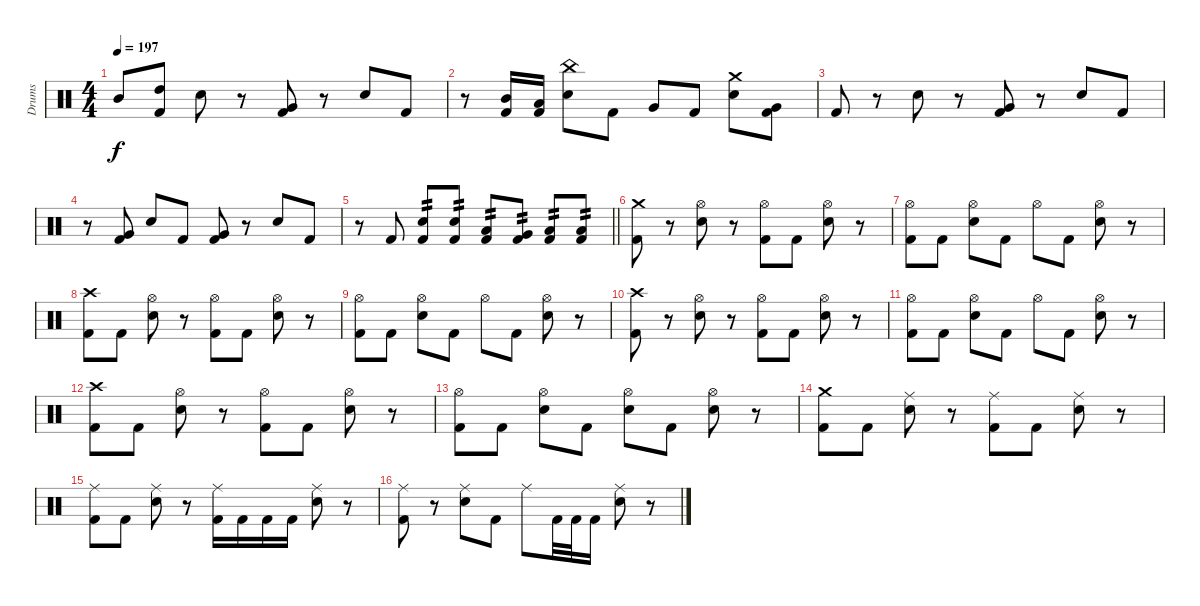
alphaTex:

\track ("Drums" "Drums") {instrument percussion}
\staff {score}
\articulation defaults
\ts (4 4)
\tempo 197
\clef neutral
\ks c "Mid Tom (hit)".8{dy f}
("High Tom (hit)" "Kick (hit) 2").8 "Electric Snare (hit)".8 r.8 ("Very Low Tom (hit)" "Kick (hit) 2").8 r.8 "Electric Snare (hit)".8 "Kick (hit) 2".8 |
r.8 ("Mid Tom (hit)" "Kick (hit) 2").16 ("Low Tom (hit)" "Kick (hit) 2").16 ("China (hit)" "Electric Snare (hit)").8 "Kick (hit) 2".8 "Very Low Tom (hit)".8 "Kick (hit) 2".8 ("Crash medium (hit)" "Electric Snare (hit)").8 ("Very Low Tom (hit)" "Kick (hit) 2").8 |
"Kick (hit) 2".8 r.8 "Electric Snare (hit)".8 r.8 ("Very Low Tom (hit)" "Kick (hit) 2").8 r.8 "Electric Snare (hit)".8 "Kick (hit) 2".8 |
r.8 ("Very Low Tom (hit)" "Kick (hit) 2").8 "Electric Snare (hit)".8 "Kick (hit) 2".8 ("Very Low Tom (hit)" "Kick (hit) 2").8 r.8 "Electric Snare (hit)".8 "Kick (hit) 2".8 |
\barLineRight lightlight
r.8 "Kick (hit) 2".8 ("Electric Snare (hit)" "Kick (hit) 2").8{tp 2} ("Electric Snare (hit)" "Kick (hit) 2").8{tp 2} ("Low Tom (hit)" "Kick (hit) 2").8{tp 2} ("Very Low Tom (hit)" "Kick (hit) 2").8{tp 2} ("Low Floor Tom (hit)" "Kick (hit) 2").8{tp 2} ("Low Floor Tom (hit)" "Kick (hit) 2").8{tp 2} |
("Crash medium (hit)" "Kick (hit) 2").8 r.8 ("Hi-Hat (open)" "Electric Snare (hit)").8 r.8 ("Hi-Hat (open)" "Kick (hit) 2").8 "Kick (hit) 2".8 ("Hi-Hat (open)" "Electric Snare (hit)").8 r.8 |
("Hi-Hat (open)" "Kick (hit) 2").8 "Kick (hit) 2".8 ("Hi-Hat (open)" "Electric Snare (hit)").8 "Kick (hit) 2".8 "Hi-Hat (open)".8 "Kick (hit) 2".8 ("Hi-Hat (open)" "Electric Snare (hit)").8 r.8 |
("Crash high (hit)" "Kick (hit) 2").8 "Kick (hit) 2".8 ("Hi-Hat (open)" "Electric Snare (hit)").8 r.8 ("Hi-Hat (open)" "Kick (hit) 2").8 "Kick (hit) 2".8 ("Hi-Hat (open)" "Electric Snare (hit)").8 r.8 |
("Hi-Hat (open)" "Kick (hit) 2").8 "Kick (hit) 2".8 ("Hi-Hat (open)" "Electric Snare (hit)").8 "Kick (hit) 2".8 "Hi-Hat (open)".8 "Kick (hit) 2".8 ("Hi-Hat (open)" "Electric Snare (hit)").8 r.8 |
("Crash high (hit)" "Kick (hit) 2").8 r.8 ("Hi-Hat (open)" "Electric Snare (hit)").8 r.8 ("Hi-Hat (open)" "Kick (hit) 2").8 "Kick (hit) 2".8 ("Hi-Hat (open)" "Electric Snare (hit)").8 r.8 |
("Hi-Hat (open)" "Kick (hit) 2").8 "Kick (hit) 2".8 ("Hi-Hat (open)" "Electric Snare (hit)").8 "Kick (hit) 2".8 "Hi-Hat (open)".8 "Kick (hit) 2".8 ("Hi-Hat (open)" "Electric Snare (hit)").8 r.8 |
("Crash high (hit)" "Kick (hit) 2").8 "Kick (hit) 2".8 ("Hi-Hat (open)" "Electric Snare (hit)").8 r.8 ("Hi-Hat (open)" "Kick (hit) 2").8 "Kick (hit) 2".8 ("Hi-Hat (open)" "Electric Snare (hit)").8 r.8 |
("Hi-Hat (open)" "Kick (hit) 2").8 "Kick (hit) 2".8 ("Hi-Hat (open)" "Electric Snare (hit)").8 "Kick (hit) 2".8 ("Hi-Hat (open)" "Electric Snare (hit)").8 "Kick (hit) 2".8 ("Hi-Hat (open)" "Electric Snare (hit)").8 r.8 |
("Crash medium (hit)" "Kick (hit) 2").8 "Kick (hit) 2".8 ("Ride (middle)" "Electric Snare (hit)").8 r.8 ("Ride (middle)" "Kick (hit) 2").8 "Kick (hit) 2".8 ("Ride (middle)" "Electric Snare (hit)").8 r.8 |
("Ride (middle)" "Kick (hit) 2").8 "Kick (hit) 2".8 ("Ride (middle)" "Electric Snare (hit)").8 r.8 ("Ride (middle)" "Kick (hit) 2").16 "Kick (hit) 2".16 "Kick (hit) 2".16 "Kick (hit) 2".16 ("Ride (middle)" "Electric Snare (hit)").8 r.8 |
("Ride (middle)" "Kick (hit) 2").8 r.8 ("Ride (middle)" "Electric Snare (hit)").8 "Kick (hit) 2".8 "Ride (middle)".8 "Kick (hit) 2".32 "Kick (hit) 2".32 "Kick (hit) 2".16 ("Ride (middle)" "Electric Snare (hit)").8 r.8
